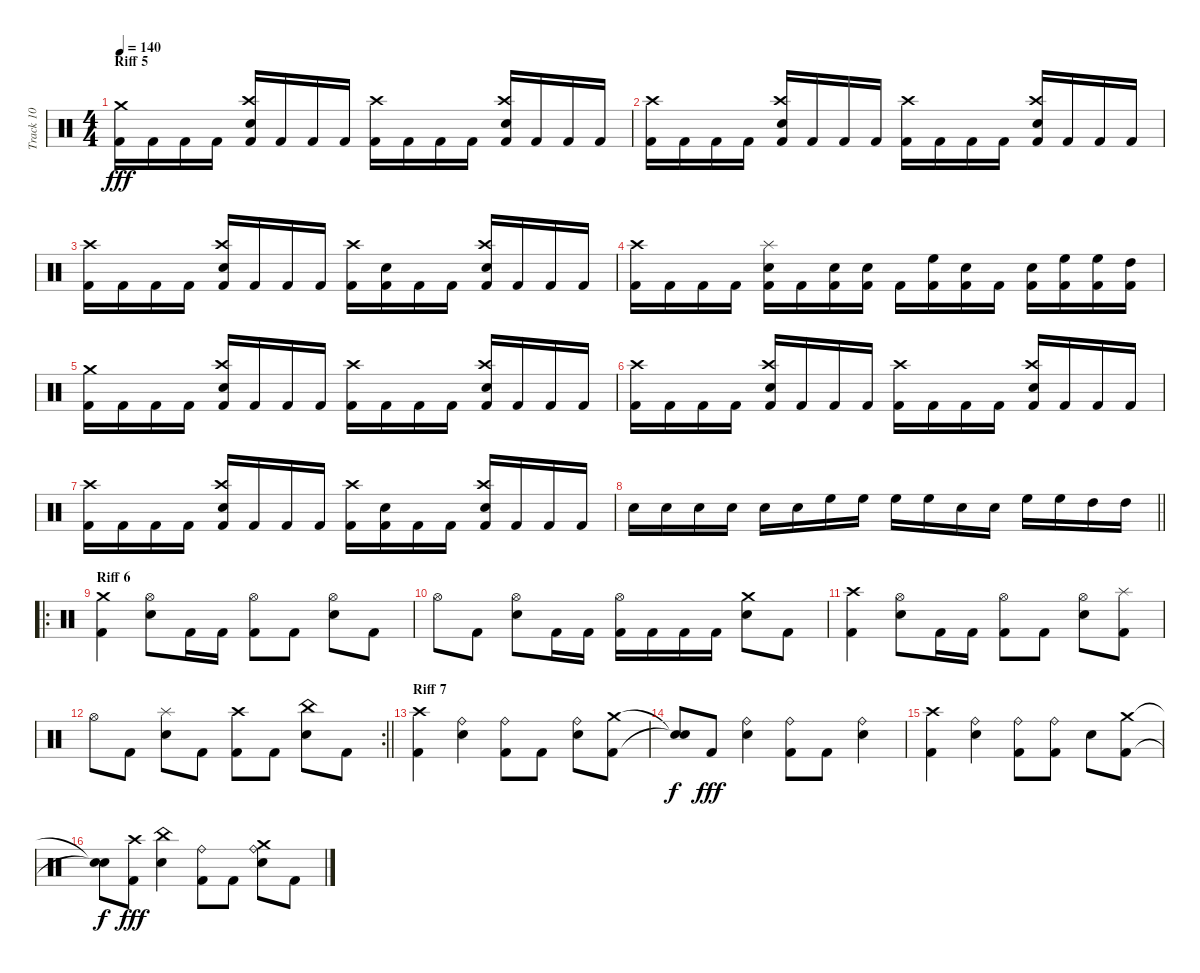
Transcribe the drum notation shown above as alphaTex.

\track ("Track 10" "Track 10") {instrument percussion}
\staff {score}
\articulation defaults
\ts (4 4)
\section ("" "Riff 5")
\tempo 140
\clef neutral
\ks c
("Kick (hit) 2" "Crash medium (hit)").16{dy fff} "Kick (hit) 2".16 "Kick (hit) 2".16 "Kick (hit) 2".16 ("Crash high (hit)" "Kick (hit) 2" "Snare (hit) 2").16 "Kick (hit) 2".16 "Kick (hit) 2".16 "Kick (hit) 2".16 ("Kick (hit) 2" "Crash high (hit)").16 "Kick (hit) 2".16 "Kick (hit) 2".16 "Kick (hit) 2".16 ("Crash high (hit)" "Kick (hit) 2" "Snare (hit) 2").16 "Kick (hit) 2".16 "Kick (hit) 2".16 "Kick (hit) 2".16 |
("Crash high (hit)" "Kick (hit) 2").16 "Kick (hit) 2".16 "Kick (hit) 2".16 "Kick (hit) 2".16 ("Crash high (hit)" "Kick (hit) 2" "Snare (hit) 2").16 "Kick (hit) 2".16 "Kick (hit) 2".16 "Kick (hit) 2".16 ("Crash high (hit)" "Kick (hit) 2").16 "Kick (hit) 2".16 "Kick (hit) 2".16 "Kick (hit) 2".16 ("Crash high (hit)" "Kick (hit) 2" "Snare (hit) 2").16 "Kick (hit) 2".16 "Kick (hit) 2".16 "Kick (hit) 2".16 |
("Kick (hit) 2" "Crash high (hit)").16 "Kick (hit) 2".16 "Kick (hit) 2".16 "Kick (hit) 2".16 ("Snare (hit) 2" "Crash high (hit)" "Kick (hit) 2").16 "Kick (hit) 2".16 "Kick (hit) 2".16 "Kick (hit) 2".16 ("Crash high (hit)" "Kick (hit) 2").16 ("Kick (hit) 2" "Snare (hit) 2").16 "Kick (hit) 2".16 "Kick (hit) 2".16 ("Kick (hit) 2" "Snare (hit) 2" "Crash high (hit)").16 "Kick (hit) 2".16 "Kick (hit) 2".16 "Kick (hit) 2".16 |
("Crash high (hit)" "Kick (hit) 2").16 "Kick (hit) 2".16 "Kick (hit) 2".16 "Kick (hit) 2".16 ("Snare (hit) 2" "Splash (hit)" "Kick (hit) 2").16 "Kick (hit) 2".16 ("Kick (hit) 2" "Snare (hit) 2").16 ("Snare (hit) 2" "Kick (hit) 2").16 "Kick (hit) 2".16 ("Kick (hit) 2" "High Floor Tom (hit)").16 ("Snare (hit) 2" "Kick (hit) 2").16 "Kick (hit) 2".16 ("Snare (hit) 2" "Kick (hit) 2").16 ("Kick (hit) 2" "High Floor Tom (hit)").16 ("High Floor Tom (hit)" "Kick (hit) 2").16 ("Kick (hit) 2" "High Tom (hit)").16 |
("Kick (hit) 2" "Crash medium (hit)").16 "Kick (hit) 2".16 "Kick (hit) 2".16 "Kick (hit) 2".16 ("Crash high (hit)" "Kick (hit) 2" "Snare (hit) 2").16 "Kick (hit) 2".16 "Kick (hit) 2".16 "Kick (hit) 2".16 ("Kick (hit) 2" "Crash high (hit)").16 "Kick (hit) 2".16 "Kick (hit) 2".16 "Kick (hit) 2".16 ("Snare (hit) 2" "Crash high (hit)" "Kick (hit) 2").16 "Kick (hit) 2".16 "Kick (hit) 2".16 "Kick (hit) 2".16 |
("Crash high (hit)" "Kick (hit) 2").16 "Kick (hit) 2".16 "Kick (hit) 2".16 "Kick (hit) 2".16 ("Crash high (hit)" "Kick (hit) 2" "Snare (hit) 2").16 "Kick (hit) 2".16 "Kick (hit) 2".16 "Kick (hit) 2".16 ("Kick (hit) 2" "Crash high (hit)").16 "Kick (hit) 2".16 "Kick (hit) 2".16 "Kick (hit) 2".16 ("Snare (hit) 2" "Crash high (hit)" "Kick (hit) 2").16 "Kick (hit) 2".16 "Kick (hit) 2".16 "Kick (hit) 2".16 |
("Kick (hit) 2" "Crash high (hit)").16 "Kick (hit) 2".16 "Kick (hit) 2".16 "Kick (hit) 2".16 ("Kick (hit) 2" "Snare (hit) 2" "Crash high (hit)").16 "Kick (hit) 2".16 "Kick (hit) 2".16 "Kick (hit) 2".16 ("Crash high (hit)" "Kick (hit) 2").16 ("Kick (hit) 2" "Snare (hit) 2").16 "Kick (hit) 2".16 "Kick (hit) 2".16 ("Crash high (hit)" "Snare (hit) 2" "Kick (hit) 2").16 "Kick (hit) 2".16 "Kick (hit) 2".16 "Kick (hit) 2".16 |
\barLineRight lightlight "Snare (hit) 2".16 "Snare (hit) 2".16 "Snare (hit) 2".16 "Snare (hit) 2".16 "Snare (hit) 2".16 "Snare (hit) 2".16 "High Floor Tom (hit)".16 "High Floor Tom (hit)".16 "High Floor Tom (hit)".16 "High Floor Tom (hit)".16 "Snare (hit) 2".16 "Snare (hit) 2".16 "High Floor Tom (hit)".16 "High Floor Tom (hit)".16 "High Tom (hit)".16 "High Tom (hit)".16
|
\ro
\section ("" "Riff 6")
("Kick (hit) 2" "Crash medium (hit)").4 ("Snare (hit) 2" "Hi-Hat (open)").8 "Kick (hit) 2".16 "Kick (hit) 2".16 ("Hi-Hat (open)" "Kick (hit) 2").8 "Kick (hit) 2".8 ("Hi-Hat (open)" "Snare (hit) 2").8 "Kick (hit) 2".8 |
"Hi-Hat (open)".8 "Kick (hit) 2".8 ("Hi-Hat (open)" "Snare (hit) 2").8 "Kick (hit) 2".16 "Kick (hit) 2".16 ("Hi-Hat (open)" "Kick (hit) 2").16 "Kick (hit) 2".16 "Kick (hit) 2".16 "Kick (hit) 2".16 ("Snare (hit) 2" "Crash medium (hit)").8 "Kick (hit) 2".8 |
("Crash high (hit)" "Kick (hit) 2").4 ("Hi-Hat (open)" "Snare (hit) 2").8 "Kick (hit) 2".16 "Kick (hit) 2".16 ("Hi-Hat (open)" "Kick (hit) 2").8 "Kick (hit) 2".8 ("Snare (hit) 2" "Hi-Hat (open)").8 ("Splash (hit)" "Kick (hit) 2").8 |
\rc 2
\barLineRight lightlight "Hi-Hat (open)".8 "Kick (hit) 2".8
("Snare (hit) 2" "Splash (hit)").8 "Kick (hit) 2".8 ("Kick (hit) 2" "Crash high (hit)").8 "Kick (hit) 2".8 ("China (hit)" "Snare (hit) 2").8 "Kick (hit) 2".8 |
\section ("" "Riff 7")
("Crash high (hit)" "Kick (hit) 2").4 ("Ride (bell)" "Snare (hit) 2").4 ("Kick (hit) 2" "Ride (bell)").8 "Kick (hit) 2".8 ("Snare (hit) 2" "Ride (bell)").8 ("Kick (hit) 2" "Crash medium (hit)").8 |
("Snare (hit)"{t} "Snare (hit)"{t}).8{dy f} "Kick (hit) 2".8{dy fff} ("Ride (bell)" "Snare (hit) 2").4 ("Kick (hit) 2" "Ride (bell)").8 "Kick (hit) 2".8 ("Snare (hit) 2" "Ride (bell)").4 |
("Kick (hit) 2" "Crash high (hit)").4 ("Snare (hit) 2" "Ride (bell)").4 ("Ride (bell)" "Kick (hit) 2").8 ("Ride (bell)" "Kick (hit) 2").8 "Snare (hit) 2".8 ("Kick (hit) 2" "Crash medium (hit)").8 |
("Snare (hit)"{t} "Snare (hit)"{t}).8{dy f} ("Kick (hit) 2" "Crash high (hit)").8{dy fff} ("Snare (hit) 2" "China (hit)").4 ("Kick (hit) 2" "Ride (bell)").8 "Kick (hit) 2".8 ("Snare (hit) 2" "Crash medium (hit)" "Ride (bell)").8 "Kick (hit) 2".8
